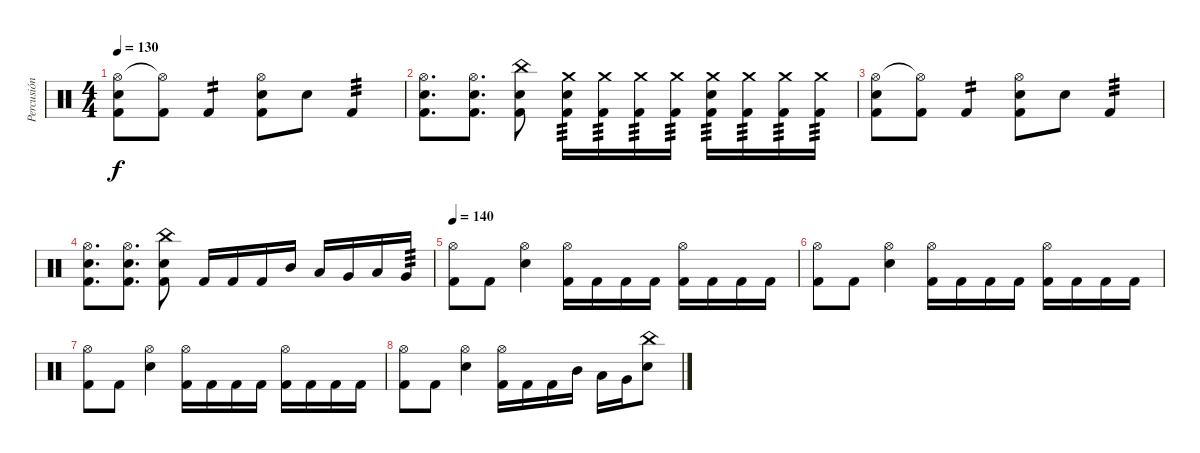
\track ("Percusión" "Percusión") {instrument percussion}
\staff {score}
\articulation defaults
\ts (4 4)
\tempo 130
\clef neutral
\ks c
("Hi-Hat (open)" "Snare (hit) 2" "Kick (hit) 2").8{dy f} ("Hi-Hat (open)"{t} "Kick (hit) 2").8 "Kick (hit) 2".4{tp 2} ("Hi-Hat (open)" "Snare (hit) 2" "Kick (hit) 2").8 "Snare (hit) 2".8 "Kick (hit) 2".4{tp 3} |
("Hi-Hat (open)" "Snare (hit) 2" "Kick (hit) 2").8{d} ("Hi-Hat (open)" "Snare (hit) 2" "Kick (hit) 2").8{d} ("China (hit)" "Snare (hit) 2" "Kick (hit) 2").8 ("Snare (hit) 2" "Crash medium (hit)" "Kick (hit) 2").16{tp 3} ("Crash medium (hit)" "Kick (hit) 2").16{tp 3} ("Crash medium (hit)" "Kick (hit) 2").16{tp 3} ("Crash medium (hit)" "Kick (hit) 2").16{tp 3} ("Snare (hit) 2" "Crash medium (hit)" "Kick (hit) 2").16{tp 3} ("Crash medium (hit)" "Kick (hit) 2").16{tp 3} ("Crash medium (hit)" "Kick (hit) 2").16{tp 3} ("Crash medium (hit)" "Kick (hit) 2").16{tp 3} |
("Hi-Hat (open)" "Snare (hit) 2" "Kick (hit) 2").8 ("Hi-Hat (open)"{t} "Kick (hit) 2").8 "Kick (hit) 2".4{tp 2} ("Hi-Hat (open)" "Snare (hit) 2" "Kick (hit) 2").8 "Snare (hit) 2".8 "Kick (hit) 2".4{tp 3} |
("Hi-Hat (open)" "Snare (hit) 2" "Kick (hit) 2").8{d} ("Hi-Hat (open)" "Snare (hit) 2" "Kick (hit) 2").8{d} ("China (hit)" "Snare (hit) 2" "Kick (hit) 2").8 "Kick (hit) 2".16 "Kick (hit) 2".16 "Kick (hit) 2".16 "Mid Tom (hit)".16 "Low Tom (hit)".16 "Very Low Tom (hit)".16 "Low Floor Tom (hit)".16 "Very Low Tom (hit)".16{tp 3} |
\tempo 140
("Hi-Hat (open)" "Kick (hit) 2").8 "Kick (hit) 2".8 ("Hi-Hat (open)" "Snare (hit) 2").4 ("Hi-Hat (open)" "Kick (hit) 2").16 "Kick (hit) 2".16 "Kick (hit) 2".16 "Kick (hit) 2".16 ("Hi-Hat (open)" "Kick (hit) 2").16 "Kick (hit) 2".16 "Kick (hit) 2".16 "Kick (hit) 2".16 |
("Hi-Hat (open)" "Kick (hit) 2").8 "Kick (hit) 2".8 ("Hi-Hat (open)" "Snare (hit) 2").4 ("Hi-Hat (open)" "Kick (hit) 2").16 "Kick (hit) 2".16 "Kick (hit) 2".16 "Kick (hit) 2".16 ("Hi-Hat (open)" "Kick (hit) 2").16 "Kick (hit) 2".16 "Kick (hit) 2".16 "Kick (hit) 2".16 |
("Hi-Hat (open)" "Kick (hit) 2").8 "Kick (hit) 2".8 ("Hi-Hat (open)" "Snare (hit) 2").4 ("Hi-Hat (open)" "Kick (hit) 2").16 "Kick (hit) 2".16 "Kick (hit) 2".16 "Kick (hit) 2".16 ("Hi-Hat (open)" "Kick (hit) 2").16 "Kick (hit) 2".16 "Kick (hit) 2".16 "Kick (hit) 2".16 |
("Hi-Hat (open)" "Kick (hit) 2").8 "Kick (hit) 2".8 ("Hi-Hat (open)" "Snare (hit) 2").4 ("Hi-Hat (open)" "Kick (hit) 2").16 "Kick (hit) 2".16 "Kick (hit) 2".16 "Mid Tom (hit)".16 "Low Tom (hit)".16 "Very Low Tom (hit)".16 ("Snare (hit) 2" "China (hit)").8
